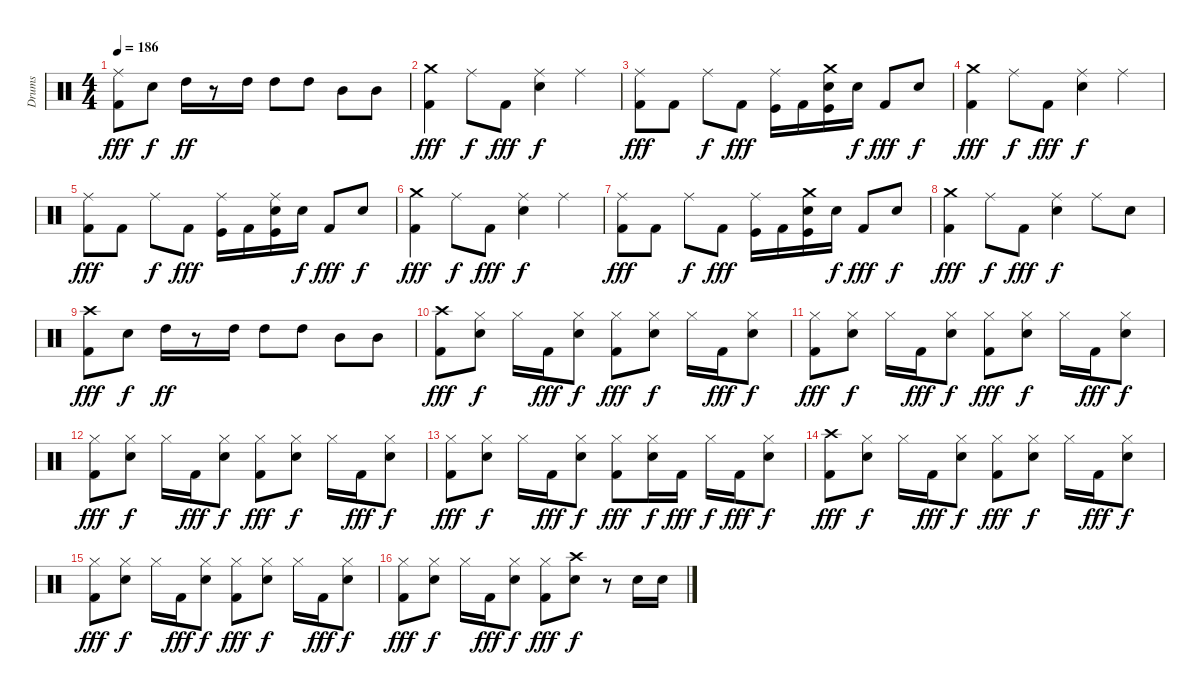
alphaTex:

\track ("Drums" "Drums") {instrument percussion}
\staff {score}
\articulation defaults
\ts (4 4)
\tempo 186
\clef neutral
\ks c
("Ride (middle)" "Kick (hit) 2").8{dy fff} "Electric Snare (hit)".8{dy f} "High Tom (hit)".16{dy ff} r.8 "High Tom (hit)".16 "High Tom (hit)".8 "High Tom (hit)".8 "Mid Tom (hit)".8 "Mid Tom (hit)".8 |
("Crash medium (hit)" "Kick (hit) 2").4{dy fff} "Ride (middle)".8{dy f} "Kick (hit) 2".8{dy fff} ("Ride (middle)" "Electric Snare (hit)").4{dy f} "Ride (middle)".4 |
("Ride (middle)" "Kick (hit) 2").8{dy fff} "Kick (hit) 2".8 "Ride (middle)".8{dy f} "Kick (hit) 2".8{dy fff} ("Ride (middle)" "Kick (hit)").16 "Kick (hit) 2".16 ("Crash medium (hit)" "Electric Snare (hit)" "Kick (hit)").16 "Electric Snare (hit)".16{dy f} "Kick (hit) 2".8{dy fff} "Electric Snare (hit)".8{dy f} |
("Crash medium (hit)" "Kick (hit) 2").4{dy fff} "Ride (middle)".8{dy f} "Kick (hit) 2".8{dy fff} ("Ride (middle)" "Electric Snare (hit)").4{dy f} "Ride (middle)".4 |
("Ride (middle)" "Kick (hit) 2").8{dy fff} "Kick (hit) 2".8 "Ride (middle)".8{dy f} "Kick (hit) 2".8{dy fff} ("Ride (middle)" "Kick (hit)").16 "Kick (hit) 2".16 ("Ride (middle)" "Electric Snare (hit)" "Kick (hit)").16 "Electric Snare (hit)".16{dy f} "Kick (hit) 2".8{dy fff} "Electric Snare (hit)".8{dy f} |
("Crash medium (hit)" "Kick (hit) 2").4{dy fff} "Ride (middle)".8{dy f} "Kick (hit) 2".8{dy fff} ("Ride (middle)" "Electric Snare (hit)").4{dy f} "Ride (middle)".4 |
("Ride (middle)" "Kick (hit) 2").8{dy fff} "Kick (hit) 2".8 "Ride (middle)".8{dy f} "Kick (hit) 2".8{dy fff} ("Ride (middle)" "Kick (hit)").16 "Kick (hit) 2".16 ("Crash medium (hit)" "Electric Snare (hit)" "Kick (hit)").16 "Electric Snare (hit)".16{dy f} "Kick (hit) 2".8{dy fff} "Electric Snare (hit)".8{dy f} |
("Crash medium (hit)" "Kick (hit) 2").4{dy fff} "Ride (middle)".8{dy f} "Kick (hit) 2".8{dy fff} ("Ride (middle)" "Electric Snare (hit)").4{dy f} "Ride (middle)".8 "Electric Snare (hit)".8 |
("Crash high (hit)" "Kick (hit) 2").8{dy fff} "Electric Snare (hit)".8{dy f} "High Tom (hit)".16{dy ff} r.8 "High Tom (hit)".16 "High Tom (hit)".8 "High Tom (hit)".8 "Mid Tom (hit)".8 "Mid Tom (hit)".8 |
("Crash high (hit)" "Kick (hit) 2").8{dy fff} ("Hi-Hat (closed)" "Electric Snare (hit)").8{dy f} "Hi-Hat (closed)".16 "Kick (hit) 2".16{dy fff} ("Hi-Hat (closed)" "Electric Snare (hit)").8{dy f} ("Hi-Hat (closed)" "Kick (hit) 2").8{dy fff} ("Hi-Hat (closed)" "Electric Snare (hit)").8{dy f} "Hi-Hat (closed)".16 "Kick (hit) 2".16{dy fff} ("Hi-Hat (closed)" "Electric Snare (hit)").8{dy f} |
("Hi-Hat (closed)" "Kick (hit) 2").8{dy fff} ("Hi-Hat (closed)" "Electric Snare (hit)").8{dy f} "Hi-Hat (closed)".16 "Kick (hit) 2".16{dy fff} ("Hi-Hat (closed)" "Electric Snare (hit)").8{dy f} ("Hi-Hat (closed)" "Kick (hit) 2").8{dy fff} ("Hi-Hat (closed)" "Electric Snare (hit)").8{dy f} "Hi-Hat (closed)".16 "Kick (hit) 2".16{dy fff} ("Hi-Hat (closed)" "Electric Snare (hit)").8{dy f} |
("Hi-Hat (closed)" "Kick (hit) 2").8{dy fff} ("Hi-Hat (closed)" "Electric Snare (hit)").8{dy f} "Hi-Hat (closed)".16 "Kick (hit) 2".16{dy fff} ("Hi-Hat (closed)" "Electric Snare (hit)").8{dy f} ("Hi-Hat (closed)" "Kick (hit) 2").8{dy fff} ("Hi-Hat (closed)" "Electric Snare (hit)").8{dy f} "Hi-Hat (closed)".16 "Kick (hit) 2".16{dy fff} ("Hi-Hat (closed)" "Electric Snare (hit)").8{dy f} |
("Hi-Hat (closed)" "Kick (hit) 2").8{dy fff} ("Hi-Hat (closed)" "Electric Snare (hit)").8{dy f} "Hi-Hat (closed)".16 "Kick (hit) 2".16{dy fff} ("Hi-Hat (closed)" "Electric Snare (hit)").8{dy f} ("Hi-Hat (closed)" "Kick (hit) 2").8{dy fff} ("Hi-Hat (closed)" "Electric Snare (hit)").16{dy f} "Kick (hit) 2".16{dy fff} "Hi-Hat (closed)".16{dy f} "Kick (hit) 2".16{dy fff} ("Hi-Hat (closed)" "Electric Snare (hit)").8{dy f} |
("Crash high (hit)" "Kick (hit) 2").8{dy fff} ("Hi-Hat (closed)" "Electric Snare (hit)").8{dy f} "Hi-Hat (closed)".16 "Kick (hit) 2".16{dy fff} ("Hi-Hat (closed)" "Electric Snare (hit)").8{dy f} ("Hi-Hat (closed)" "Kick (hit) 2").8{dy fff} ("Hi-Hat (closed)" "Electric Snare (hit)").8{dy f} "Hi-Hat (closed)".16 "Kick (hit) 2".16{dy fff} ("Hi-Hat (closed)" "Electric Snare (hit)").8{dy f} |
("Hi-Hat (closed)" "Kick (hit) 2").8{dy fff} ("Hi-Hat (closed)" "Electric Snare (hit)").8{dy f} "Hi-Hat (closed)".16 "Kick (hit) 2".16{dy fff} ("Hi-Hat (closed)" "Electric Snare (hit)").8{dy f} ("Hi-Hat (closed)" "Kick (hit) 2").8{dy fff} ("Hi-Hat (closed)" "Electric Snare (hit)").8{dy f} "Hi-Hat (closed)".16 "Kick (hit) 2".16{dy fff} ("Hi-Hat (closed)" "Electric Snare (hit)").8{dy f} |
("Hi-Hat (closed)" "Kick (hit) 2").8{dy fff} ("Hi-Hat (closed)" "Electric Snare (hit)").8{dy f} "Hi-Hat (closed)".16 "Kick (hit) 2".16{dy fff} ("Hi-Hat (closed)" "Electric Snare (hit)").8{dy f} ("Hi-Hat (closed)" "Kick (hit) 2").8{dy fff} ("Crash high (hit)" "Electric Snare (hit)").8{dy f} r.8 "Electric Snare (hit)".16 "Electric Snare (hit)".16
